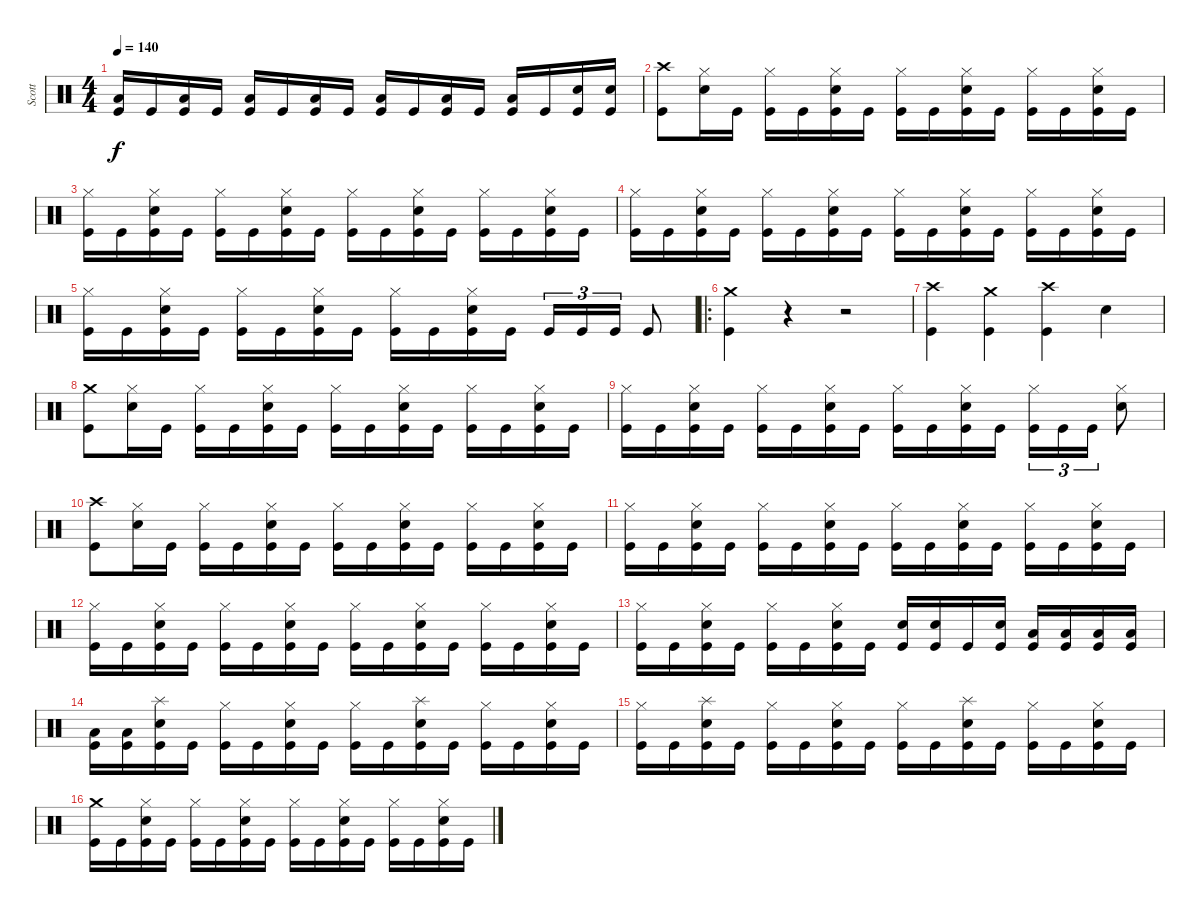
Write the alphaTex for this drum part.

\track ("Scott" "Scott") {instrument percussion}
\staff {score}
\articulation defaults
\ts (4 4)
\tempo 140
\clef neutral
\ks c
("Kick (hit)" "Low Floor Tom (hit)").16{dy f} "Kick (hit)".16 ("Kick (hit)" "Low Floor Tom (hit)").16 "Kick (hit)".16 ("Kick (hit)" "Low Floor Tom (hit)").16 "Kick (hit)".16 ("Kick (hit)" "Low Floor Tom (hit)").16 "Kick (hit)".16 ("Kick (hit)" "Low Floor Tom (hit)").16 "Kick (hit)".16 ("Kick (hit)" "Low Floor Tom (hit)").16 "Kick (hit)".16 ("Kick (hit)" "Low Floor Tom (hit)").16 "Kick (hit)".16 ("Kick (hit)" "Snare (hit) 2").16 ("Kick (hit)" "Snare (hit) 2").16 |
("Kick (hit)" "Crash high (hit)").8 ("Snare (hit) 2" "Hi-Hat (closed)").16 "Kick (hit)".16 ("Kick (hit)" "Hi-Hat (closed)").16 "Kick (hit)".16 ("Kick (hit)" "Snare (hit) 2" "Hi-Hat (closed)").16 "Kick (hit)".16 ("Kick (hit)" "Hi-Hat (closed)").16 "Kick (hit)".16 ("Kick (hit)" "Snare (hit) 2" "Hi-Hat (closed)").16 "Kick (hit)".16 ("Kick (hit)" "Hi-Hat (closed)").16 "Kick (hit)".16 ("Kick (hit)" "Snare (hit) 2" "Hi-Hat (closed)").16 "Kick (hit)".16 |
("Kick (hit)" "Hi-Hat (closed)").16 "Kick (hit)".16 ("Kick (hit)" "Snare (hit) 2" "Hi-Hat (closed)").16 "Kick (hit)".16 ("Kick (hit)" "Hi-Hat (closed)").16 "Kick (hit)".16 ("Kick (hit)" "Snare (hit) 2" "Hi-Hat (closed)").16 "Kick (hit)".16 ("Kick (hit)" "Hi-Hat (closed)").16 "Kick (hit)".16 ("Kick (hit)" "Snare (hit) 2" "Hi-Hat (closed)").16 "Kick (hit)".16 ("Kick (hit)" "Hi-Hat (closed)").16 "Kick (hit)".16 ("Kick (hit)" "Snare (hit) 2" "Hi-Hat (closed)").16 "Kick (hit)".16 |
("Kick (hit)" "Hi-Hat (closed)").16 "Kick (hit)".16 ("Kick (hit)" "Snare (hit) 2" "Hi-Hat (closed)").16 "Kick (hit)".16 ("Kick (hit)" "Hi-Hat (closed)").16 "Kick (hit)".16 ("Kick (hit)" "Snare (hit) 2" "Hi-Hat (closed)").16 "Kick (hit)".16 ("Kick (hit)" "Hi-Hat (closed)").16 "Kick (hit)".16 ("Kick (hit)" "Snare (hit) 2" "Hi-Hat (closed)").16 "Kick (hit)".16 ("Kick (hit)" "Hi-Hat (closed)").16 "Kick (hit)".16 ("Kick (hit)" "Snare (hit) 2" "Hi-Hat (closed)").16 "Kick (hit)".16 |
("Kick (hit)" "Hi-Hat (closed)").16 "Kick (hit)".16 ("Kick (hit)" "Snare (hit) 2" "Hi-Hat (closed)").16 "Kick (hit)".16 ("Kick (hit)" "Hi-Hat (closed)").16 "Kick (hit)".16 ("Kick (hit)" "Snare (hit) 2" "Hi-Hat (closed)").16 "Kick (hit)".16 ("Kick (hit)" "Hi-Hat (closed)").16 "Kick (hit)".16 ("Kick (hit)" "Snare (hit) 2" "Hi-Hat (closed)").16 "Kick (hit)".16 "Kick (hit)".16{tu (3 2)} "Kick (hit)".16{tu (3 2)} "Kick (hit)".16{tu (3 2)} "Kick (hit)".8 |
\ro
("Kick (hit)" "Crash medium (hit)").4 r.4 r.2 |
("Kick (hit)" "Crash high (hit)").4 ("Kick (hit)" "Crash medium (hit)").4 ("Kick (hit)" "Crash high (hit)").4 "Snare (hit) 2".4 |
("Kick (hit)" "Crash medium (hit)").8 ("Snare (hit) 2" "Hi-Hat (closed)").16 "Kick (hit)".16 ("Kick (hit)" "Hi-Hat (closed)").16 "Kick (hit)".16 ("Kick (hit)" "Snare (hit) 2" "Hi-Hat (closed)").16 "Kick (hit)".16 ("Kick (hit)" "Hi-Hat (closed)").16 "Kick (hit)".16 ("Kick (hit)" "Snare (hit) 2" "Hi-Hat (closed)").16 "Kick (hit)".16 ("Kick (hit)" "Hi-Hat (closed)").16 "Kick (hit)".16 ("Kick (hit)" "Snare (hit) 2" "Hi-Hat (closed)").16 "Kick (hit)".16 |
("Kick (hit)" "Hi-Hat (closed)").16 "Kick (hit)".16 ("Kick (hit)" "Snare (hit) 2" "Hi-Hat (closed)").16 "Kick (hit)".16 ("Kick (hit)" "Hi-Hat (closed)").16 "Kick (hit)".16 ("Kick (hit)" "Snare (hit) 2" "Hi-Hat (closed)").16 "Kick (hit)".16 ("Kick (hit)" "Hi-Hat (closed)").16 "Kick (hit)".16 ("Kick (hit)" "Snare (hit) 2" "Hi-Hat (closed)").16 "Kick (hit)".16 ("Kick (hit)" "Hi-Hat (closed)").16{tu (3 2)} "Kick (hit)".16{tu (3 2)} "Kick (hit)".16{tu (3 2)} ("Snare (hit) 2" "Hi-Hat (closed)").8 |
("Kick (hit)" "Crash high (hit)").8 ("Snare (hit) 2" "Hi-Hat (closed)").16 "Kick (hit)".16 ("Kick (hit)" "Hi-Hat (closed)").16 "Kick (hit)".16 ("Kick (hit)" "Snare (hit) 2" "Hi-Hat (closed)").16 "Kick (hit)".16 ("Kick (hit)" "Hi-Hat (closed)").16 "Kick (hit)".16 ("Kick (hit)" "Snare (hit) 2" "Hi-Hat (closed)").16 "Kick (hit)".16 ("Kick (hit)" "Hi-Hat (closed)").16 "Kick (hit)".16 ("Kick (hit)" "Snare (hit) 2" "Hi-Hat (closed)").16 "Kick (hit)".16 |
("Kick (hit)" "Hi-Hat (closed)").16 "Kick (hit)".16 ("Kick (hit)" "Snare (hit) 2" "Hi-Hat (closed)").16 "Kick (hit)".16 ("Kick (hit)" "Hi-Hat (closed)").16 "Kick (hit)".16 ("Kick (hit)" "Snare (hit) 2" "Hi-Hat (closed)").16 "Kick (hit)".16 ("Kick (hit)" "Hi-Hat (closed)").16 "Kick (hit)".16 ("Kick (hit)" "Snare (hit) 2" "Hi-Hat (closed)").16 "Kick (hit)".16 ("Kick (hit)" "Hi-Hat (closed)").16 "Kick (hit)".16 ("Kick (hit)" "Snare (hit) 2" "Hi-Hat (closed)").16 "Kick (hit)".16 |
("Kick (hit)" "Hi-Hat (closed)").16 "Kick (hit)".16 ("Kick (hit)" "Snare (hit) 2" "Hi-Hat (closed)").16 "Kick (hit)".16 ("Kick (hit)" "Hi-Hat (closed)").16 "Kick (hit)".16 ("Kick (hit)" "Snare (hit) 2" "Hi-Hat (closed)").16 "Kick (hit)".16 ("Kick (hit)" "Hi-Hat (closed)").16 "Kick (hit)".16 ("Kick (hit)" "Snare (hit) 2" "Hi-Hat (closed)").16 "Kick (hit)".16 ("Kick (hit)" "Hi-Hat (closed)").16 "Kick (hit)".16 ("Kick (hit)" "Snare (hit) 2" "Hi-Hat (closed)").16 "Kick (hit)".16 |
("Kick (hit)" "Hi-Hat (closed)").16 "Kick (hit)".16 ("Kick (hit)" "Snare (hit) 2" "Hi-Hat (closed)").16 "Kick (hit)".16 ("Kick (hit)" "Hi-Hat (closed)").16 "Kick (hit)".16 ("Kick (hit)" "Snare (hit) 2" "Hi-Hat (closed)").16 "Kick (hit)".16 ("Kick (hit)" "Snare (hit) 2").16 ("Kick (hit)" "Snare (hit) 2").16 "Kick (hit)".16 ("Kick (hit)" "Snare (hit) 2").16 ("Kick (hit)" "Low Tom (hit)").16 ("Kick (hit)" "Low Tom (hit)").16 ("Kick (hit)" "Low Tom (hit)").16 ("Kick (hit)" "Low Tom (hit)").16 |
("Kick (hit)" "Low Tom (hit)").16 ("Kick (hit)" "Low Tom (hit)").16 ("Kick (hit)" "Snare (hit) 2" "Splash (hit)").16 "Kick (hit)".16 ("Kick (hit)" "Hi-Hat (closed)").16 "Kick (hit)".16 ("Kick (hit)" "Snare (hit) 2" "Hi-Hat (closed)").16 "Kick (hit)".16 ("Kick (hit)" "Hi-Hat (closed)").16 "Kick (hit)".16 ("Kick (hit)" "Snare (hit) 2" "Splash (hit)").16 "Kick (hit)".16 ("Kick (hit)" "Hi-Hat (closed)").16 "Kick (hit)".16 ("Kick (hit)" "Snare (hit) 2" "Hi-Hat (closed)").16 "Kick (hit)".16 |
("Kick (hit)" "Hi-Hat (closed)").16 "Kick (hit)".16 ("Kick (hit)" "Snare (hit) 2" "Splash (hit)").16 "Kick (hit)".16 ("Kick (hit)" "Hi-Hat (closed)").16 "Kick (hit)".16 ("Kick (hit)" "Snare (hit) 2" "Hi-Hat (closed)").16 "Kick (hit)".16 ("Kick (hit)" "Hi-Hat (closed)").16 "Kick (hit)".16 ("Kick (hit)" "Snare (hit) 2" "Splash (hit)").16 "Kick (hit)".16 ("Kick (hit)" "Hi-Hat (closed)").16 "Kick (hit)".16 ("Kick (hit)" "Snare (hit) 2" "Hi-Hat (closed)").16 "Kick (hit)".16 |
("Kick (hit)" "Crash medium (hit)").16 "Kick (hit)".16 ("Kick (hit)" "Snare (hit) 2" "Hi-Hat (closed)").16 "Kick (hit)".16 ("Kick (hit)" "Hi-Hat (closed)").16 "Kick (hit)".16 ("Kick (hit)" "Snare (hit) 2" "Hi-Hat (closed)").16 "Kick (hit)".16 ("Kick (hit)" "Hi-Hat (closed)").16 "Kick (hit)".16 ("Kick (hit)" "Snare (hit) 2" "Hi-Hat (closed)").16 "Kick (hit)".16 ("Kick (hit)" "Hi-Hat (closed)").16 "Kick (hit)".16 ("Kick (hit)" "Snare (hit) 2" "Hi-Hat (closed)").16 "Kick (hit)".16
